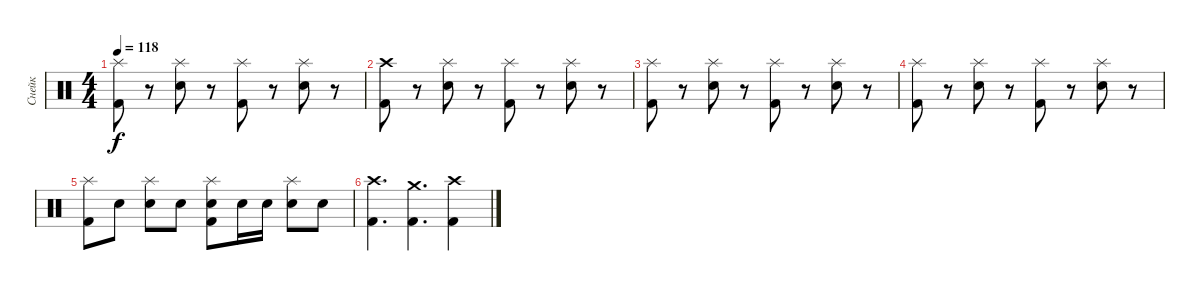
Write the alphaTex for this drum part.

\track ("Снейк" "Снейк") {instrument percussion}
\staff {score}
\articulation defaults
\ts (4 4)
\tempo 118
\clef neutral
\ks c
("Splash (hit)" "Kick (hit) 2").8{dy f} r.8 ("Splash (hit)" "Electric Snare (hit)").8 r.8 ("Splash (hit)" "Kick (hit) 2").8 r.8 ("Splash (hit)" "Electric Snare (hit)").8 r.8 |
("Crash high (hit)" "Kick (hit) 2").8 r.8 ("Splash (hit)" "Electric Snare (hit)").8 r.8 ("Splash (hit)" "Kick (hit) 2").8 r.8 ("Splash (hit)" "Electric Snare (hit)").8 r.8 |
("Splash (hit)" "Kick (hit) 2").8 r.8 ("Splash (hit)" "Electric Snare (hit)").8 r.8 ("Splash (hit)" "Kick (hit) 2").8 r.8 ("Splash (hit)" "Electric Snare (hit)").8 r.8 |
("Splash (hit)" "Kick (hit) 2").8 r.8 ("Splash (hit)" "Electric Snare (hit)").8 r.8 ("Splash (hit)" "Kick (hit) 2").8 r.8 ("Splash (hit)" "Electric Snare (hit)").8 r.8 |
("Splash (hit)" "Kick (hit) 2").8 "Electric Snare (hit)".8 ("Splash (hit)" "Electric Snare (hit)").8 "Electric Snare (hit)".8 ("Splash (hit)" "Electric Snare (hit)" "Kick (hit) 2").8 "Electric Snare (hit)".16 "Electric Snare (hit)".16 ("Splash (hit)" "Electric Snare (hit)").8 "Electric Snare (hit)".8 |
("Crash high (hit)" "Kick (hit) 2").4{d} ("Crash medium (hit)" "Kick (hit) 2").4{d} ("Crash high (hit)" "Kick (hit) 2").4
